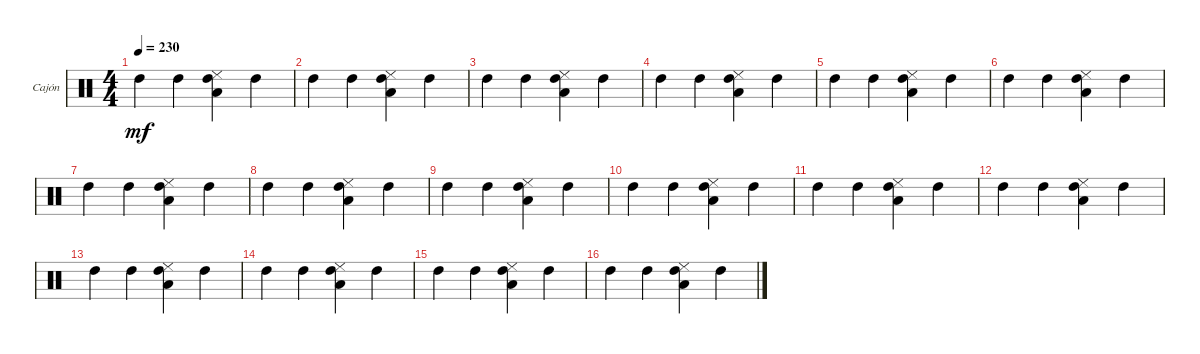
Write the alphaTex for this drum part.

\defaultSystemsLayout 4
\bracketExtendMode groupsimilarinstruments
\firstSystemTrackNameOrientation horizontal
\otherSystemsTrackNameOrientation horizontal
\track ("Cajón (Ira)" "Cajón") {instrument percussion}
\staff {score}
\articulation defaults
\ts (4 4)
\tempo 230
\clef neutral
\scale
0.333333
\ks c "High Tom (hit)".4{dy mf} "High Tom (hit)".4
("High Tom (hit)" "Cowbell low (tip)" "Low Tom (hit)").4 "High Tom (hit)".4 |
\scale
0.333333 "High Tom (hit)".4 "High Tom (hit)".4 ("High Tom (hit)" "Cowbell low (tip)" "Low Tom (hit)").4 "High Tom (hit)".4 |
\scale
0.333333 "High Tom (hit)".4 "High Tom (hit)".4 ("High Tom (hit)" "Low Tom (hit)" "Cowbell low (tip)").4 "High Tom (hit)".4 |
\scale
0.333333 "High Tom (hit)".4 "High Tom (hit)".4 ("Low Tom (hit)" "Cowbell low (tip)" "High Tom (hit)").4 "High Tom (hit)".4 |
\scale
0.333333 "High Tom (hit)".4 "High Tom (hit)".4 ("High Tom (hit)" "Low Tom (hit)" "Cowbell low (tip)").4 "High Tom (hit)".4 |
\scale
0.333333 "High Tom (hit)".4 "High Tom (hit)".4 ("High Tom (hit)" "Low Tom (hit)" "Cowbell low (tip)").4 "High Tom (hit)".4 |
\scale
0.333333 "High Tom (hit)".4 "High Tom (hit)".4 ("High Tom (hit)" "Low Tom (hit)" "Cowbell low (tip)").4 "High Tom (hit)".4 |
\scale
0.333333 "High Tom (hit)".4 "High Tom (hit)".4 ("High Tom (hit)" "Low Tom (hit)" "Cowbell low (tip)").4 "High Tom (hit)".4 |
\scale
0.333333 "High Tom (hit)".4 "High Tom (hit)".4 ("High Tom (hit)" "Low Tom (hit)" "Cowbell low (tip)").4 "High Tom (hit)".4 |
\scale
0.333333 "High Tom (hit)".4 "High Tom (hit)".4 ("High Tom (hit)" "Low Tom (hit)" "Cowbell low (tip)").4 "High Tom (hit)".4 |
\scale
0.333333 "High Tom (hit)".4 "High Tom (hit)".4 ("High Tom (hit)" "Low Tom (hit)" "Cowbell low (tip)").4 "High Tom (hit)".4 |
\scale
0.333333 "High Tom (hit)".4 "High Tom (hit)".4 ("High Tom (hit)" "Low Tom (hit)" "Cowbell low (tip)").4 "High Tom (hit)".4 |
\scale
0.333333 "High Tom (hit)".4 "High Tom (hit)".4 ("Cowbell low (tip)" "High Tom (hit)" "Low Tom (hit)").4 "High Tom (hit)".4 |
\scale
0.333333 "High Tom (hit)".4 "High Tom (hit)".4 ("Cowbell low (tip)" "High Tom (hit)" "Low Tom (hit)").4 "High Tom (hit)".4 |
\scale
0.333333 "High Tom (hit)".4 "High Tom (hit)".4 ("High Tom (hit)" "Cowbell low (tip)" "Low Tom (hit)").4 "High Tom (hit)".4 |
\scale
0.333333 "High Tom (hit)".4 "High Tom (hit)".4 ("High Tom (hit)" "Cowbell low (tip)" "Low Tom (hit)").4 "High Tom (hit)".4
